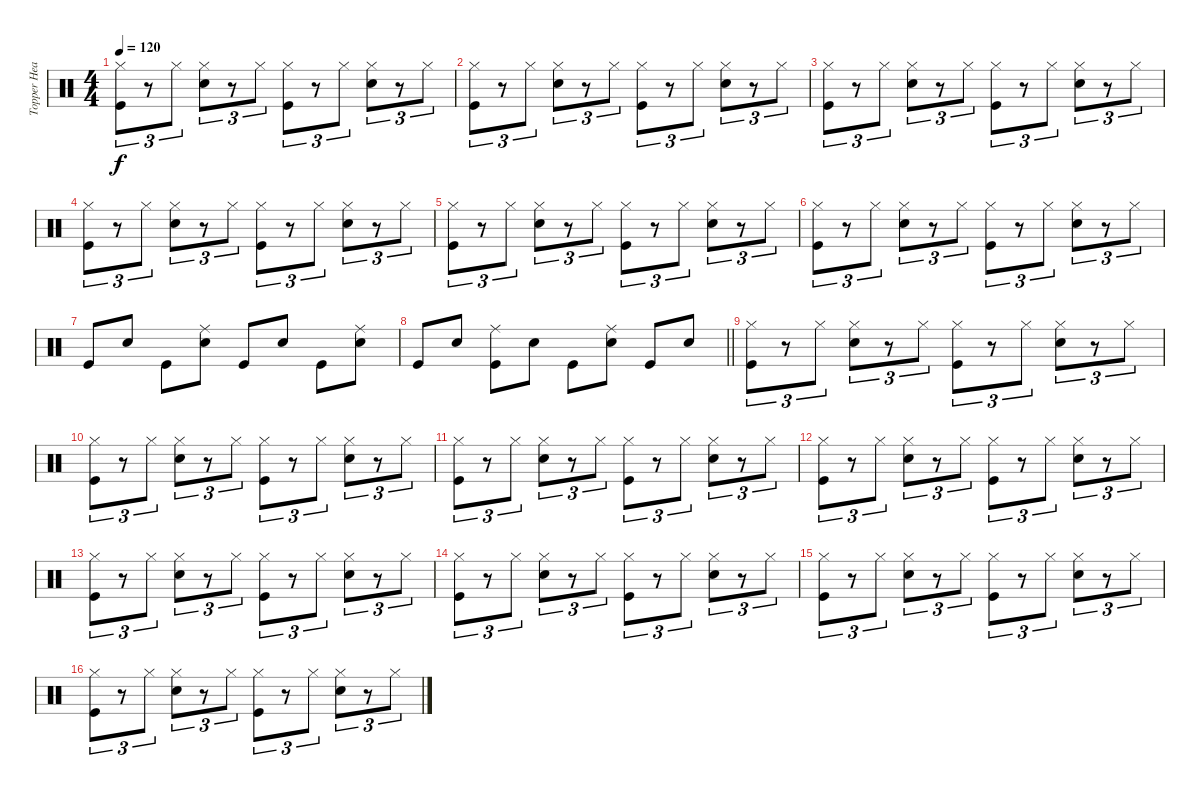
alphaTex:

\track ("Topper Headon" "Topper Hea") {instrument percussion}
\staff {score}
\articulation defaults
\ts (4 4)
\tempo 120
\clef neutral
\ks c
("Hi-Hat (closed)" "Kick (hit)").8{tu (3 2) dy f} r.8{tu (3 2)} "Hi-Hat (closed)".8{tu (3 2)} ("Hi-Hat (closed)" "Electric Snare (hit)").8{tu (3 2)} r.8{tu (3 2)} "Hi-Hat (closed)".8{tu (3 2)} ("Hi-Hat (closed)" "Kick (hit)").8{tu (3 2)} r.8{tu (3 2)} "Hi-Hat (closed)".8{tu (3 2)} ("Hi-Hat (closed)" "Electric Snare (hit)").8{tu (3 2)} r.8{tu (3 2)} "Hi-Hat (closed)".8{tu (3 2)} |
("Hi-Hat (closed)" "Kick (hit)").8{tu (3 2)} r.8{tu (3 2)} "Hi-Hat (closed)".8{tu (3 2)} ("Hi-Hat (closed)" "Electric Snare (hit)").8{tu (3 2)} r.8{tu (3 2)} "Hi-Hat (closed)".8{tu (3 2)} ("Hi-Hat (closed)" "Kick (hit)").8{tu (3 2)} r.8{tu (3 2)} "Hi-Hat (closed)".8{tu (3 2)} ("Hi-Hat (closed)" "Electric Snare (hit)").8{tu (3 2)} r.8{tu (3 2)} "Hi-Hat (closed)".8{tu (3 2)} |
("Hi-Hat (closed)" "Kick (hit)").8{tu (3 2)} r.8{tu (3 2)} "Hi-Hat (closed)".8{tu (3 2)} ("Hi-Hat (closed)" "Electric Snare (hit)").8{tu (3 2)} r.8{tu (3 2)} "Hi-Hat (closed)".8{tu (3 2)} ("Hi-Hat (closed)" "Kick (hit)").8{tu (3 2)} r.8{tu (3 2)} "Hi-Hat (closed)".8{tu (3 2)} ("Hi-Hat (closed)" "Electric Snare (hit)").8{tu (3 2)} r.8{tu (3 2)} "Hi-Hat (closed)".8{tu (3 2)} |
("Hi-Hat (closed)" "Kick (hit)").8{tu (3 2)} r.8{tu (3 2)} "Hi-Hat (closed)".8{tu (3 2)} ("Hi-Hat (closed)" "Electric Snare (hit)").8{tu (3 2)} r.8{tu (3 2)} "Hi-Hat (closed)".8{tu (3 2)} ("Hi-Hat (closed)" "Kick (hit)").8{tu (3 2)} r.8{tu (3 2)} "Hi-Hat (closed)".8{tu (3 2)} ("Hi-Hat (closed)" "Electric Snare (hit)").8{tu (3 2)} r.8{tu (3 2)} "Hi-Hat (closed)".8{tu (3 2)} |
("Hi-Hat (closed)" "Kick (hit)").8{tu (3 2)} r.8{tu (3 2)} "Hi-Hat (closed)".8{tu (3 2)} ("Hi-Hat (closed)" "Electric Snare (hit)").8{tu (3 2)} r.8{tu (3 2)} "Hi-Hat (closed)".8{tu (3 2)} ("Hi-Hat (closed)" "Kick (hit)").8{tu (3 2)} r.8{tu (3 2)} "Hi-Hat (closed)".8{tu (3 2)} ("Hi-Hat (closed)" "Electric Snare (hit)").8{tu (3 2)} r.8{tu (3 2)} "Hi-Hat (closed)".8{tu (3 2)} |
("Hi-Hat (closed)" "Kick (hit)").8{tu (3 2)} r.8{tu (3 2)} "Hi-Hat (closed)".8{tu (3 2)} ("Hi-Hat (closed)" "Electric Snare (hit)").8{tu (3 2)} r.8{tu (3 2)} "Hi-Hat (closed)".8{tu (3 2)} ("Hi-Hat (closed)" "Kick (hit)").8{tu (3 2)} r.8{tu (3 2)} "Hi-Hat (closed)".8{tu (3 2)} ("Hi-Hat (closed)" "Electric Snare (hit)").8{tu (3 2)} r.8{tu (3 2)} "Hi-Hat (closed)".8{tu (3 2)} |
"Kick (hit)".8 "Electric Snare (hit)".8 "Kick (hit)".8 ("Ride (middle)" "Electric Snare (hit)").8 "Kick (hit)".8 "Electric Snare (hit)".8 "Kick (hit)".8 ("Ride (middle)" "Electric Snare (hit)").8 |
\barLineRight lightlight "Kick (hit)".8 "Electric Snare (hit)".8
("Ride (middle)" "Kick (hit)").8 "Electric Snare (hit)".8 "Kick (hit)".8 ("Ride (middle)" "Electric Snare (hit)").8 "Kick (hit)".8 "Electric Snare (hit)".8 |
("Hi-Hat (closed)" "Kick (hit)").8{tu (3 2)} r.8{tu (3 2)} "Hi-Hat (closed)".8{tu (3 2)} ("Hi-Hat (closed)" "Electric Snare (hit)").8{tu (3 2)} r.8{tu (3 2)} "Hi-Hat (closed)".8{tu (3 2)} ("Hi-Hat (closed)" "Kick (hit)").8{tu (3 2)} r.8{tu (3 2)} "Hi-Hat (closed)".8{tu (3 2)} ("Hi-Hat (closed)" "Electric Snare (hit)").8{tu (3 2)} r.8{tu (3 2)} "Hi-Hat (closed)".8{tu (3 2)} |
("Hi-Hat (closed)" "Kick (hit)").8{tu (3 2)} r.8{tu (3 2)} "Hi-Hat (closed)".8{tu (3 2)} ("Hi-Hat (closed)" "Electric Snare (hit)").8{tu (3 2)} r.8{tu (3 2)} "Hi-Hat (closed)".8{tu (3 2)} ("Hi-Hat (closed)" "Kick (hit)").8{tu (3 2)} r.8{tu (3 2)} "Hi-Hat (closed)".8{tu (3 2)} ("Hi-Hat (closed)" "Electric Snare (hit)").8{tu (3 2)} r.8{tu (3 2)} "Hi-Hat (closed)".8{tu (3 2)} |
("Hi-Hat (closed)" "Kick (hit)").8{tu (3 2)} r.8{tu (3 2)} "Hi-Hat (closed)".8{tu (3 2)} ("Hi-Hat (closed)" "Electric Snare (hit)").8{tu (3 2)} r.8{tu (3 2)} "Hi-Hat (closed)".8{tu (3 2)} ("Hi-Hat (closed)" "Kick (hit)").8{tu (3 2)} r.8{tu (3 2)} "Hi-Hat (closed)".8{tu (3 2)} ("Hi-Hat (closed)" "Electric Snare (hit)").8{tu (3 2)} r.8{tu (3 2)} "Hi-Hat (closed)".8{tu (3 2)} |
("Hi-Hat (closed)" "Kick (hit)").8{tu (3 2)} r.8{tu (3 2)} "Hi-Hat (closed)".8{tu (3 2)} ("Hi-Hat (closed)" "Electric Snare (hit)").8{tu (3 2)} r.8{tu (3 2)} "Hi-Hat (closed)".8{tu (3 2)} ("Hi-Hat (closed)" "Kick (hit)").8{tu (3 2)} r.8{tu (3 2)} "Hi-Hat (closed)".8{tu (3 2)} ("Hi-Hat (closed)" "Electric Snare (hit)").8{tu (3 2)} r.8{tu (3 2)} "Hi-Hat (closed)".8{tu (3 2)} |
("Hi-Hat (closed)" "Kick (hit)").8{tu (3 2)} r.8{tu (3 2)} "Hi-Hat (closed)".8{tu (3 2)} ("Hi-Hat (closed)" "Electric Snare (hit)").8{tu (3 2)} r.8{tu (3 2)} "Hi-Hat (closed)".8{tu (3 2)} ("Hi-Hat (closed)" "Kick (hit)").8{tu (3 2)} r.8{tu (3 2)} "Hi-Hat (closed)".8{tu (3 2)} ("Hi-Hat (closed)" "Electric Snare (hit)").8{tu (3 2)} r.8{tu (3 2)} "Hi-Hat (closed)".8{tu (3 2)} |
("Hi-Hat (closed)" "Kick (hit)").8{tu (3 2)} r.8{tu (3 2)} "Hi-Hat (closed)".8{tu (3 2)} ("Hi-Hat (closed)" "Electric Snare (hit)").8{tu (3 2)} r.8{tu (3 2)} "Hi-Hat (closed)".8{tu (3 2)} ("Hi-Hat (closed)" "Kick (hit)").8{tu (3 2)} r.8{tu (3 2)} "Hi-Hat (closed)".8{tu (3 2)} ("Hi-Hat (closed)" "Electric Snare (hit)").8{tu (3 2)} r.8{tu (3 2)} "Hi-Hat (closed)".8{tu (3 2)} |
("Hi-Hat (closed)" "Kick (hit)").8{tu (3 2)} r.8{tu (3 2)} "Hi-Hat (closed)".8{tu (3 2)} ("Hi-Hat (closed)" "Electric Snare (hit)").8{tu (3 2)} r.8{tu (3 2)} "Hi-Hat (closed)".8{tu (3 2)} ("Hi-Hat (closed)" "Kick (hit)").8{tu (3 2)} r.8{tu (3 2)} "Hi-Hat (closed)".8{tu (3 2)} ("Hi-Hat (closed)" "Electric Snare (hit)").8{tu (3 2)} r.8{tu (3 2)} "Hi-Hat (closed)".8{tu (3 2)} |
("Hi-Hat (closed)" "Kick (hit)").8{tu (3 2)} r.8{tu (3 2)} "Hi-Hat (closed)".8{tu (3 2)} ("Hi-Hat (closed)" "Electric Snare (hit)").8{tu (3 2)} r.8{tu (3 2)} "Hi-Hat (closed)".8{tu (3 2)} ("Hi-Hat (closed)" "Kick (hit)").8{tu (3 2)} r.8{tu (3 2)} "Hi-Hat (closed)".8{tu (3 2)} ("Hi-Hat (closed)" "Electric Snare (hit)").8{tu (3 2)} r.8{tu (3 2)} "Hi-Hat (closed)".8{tu (3 2)}
